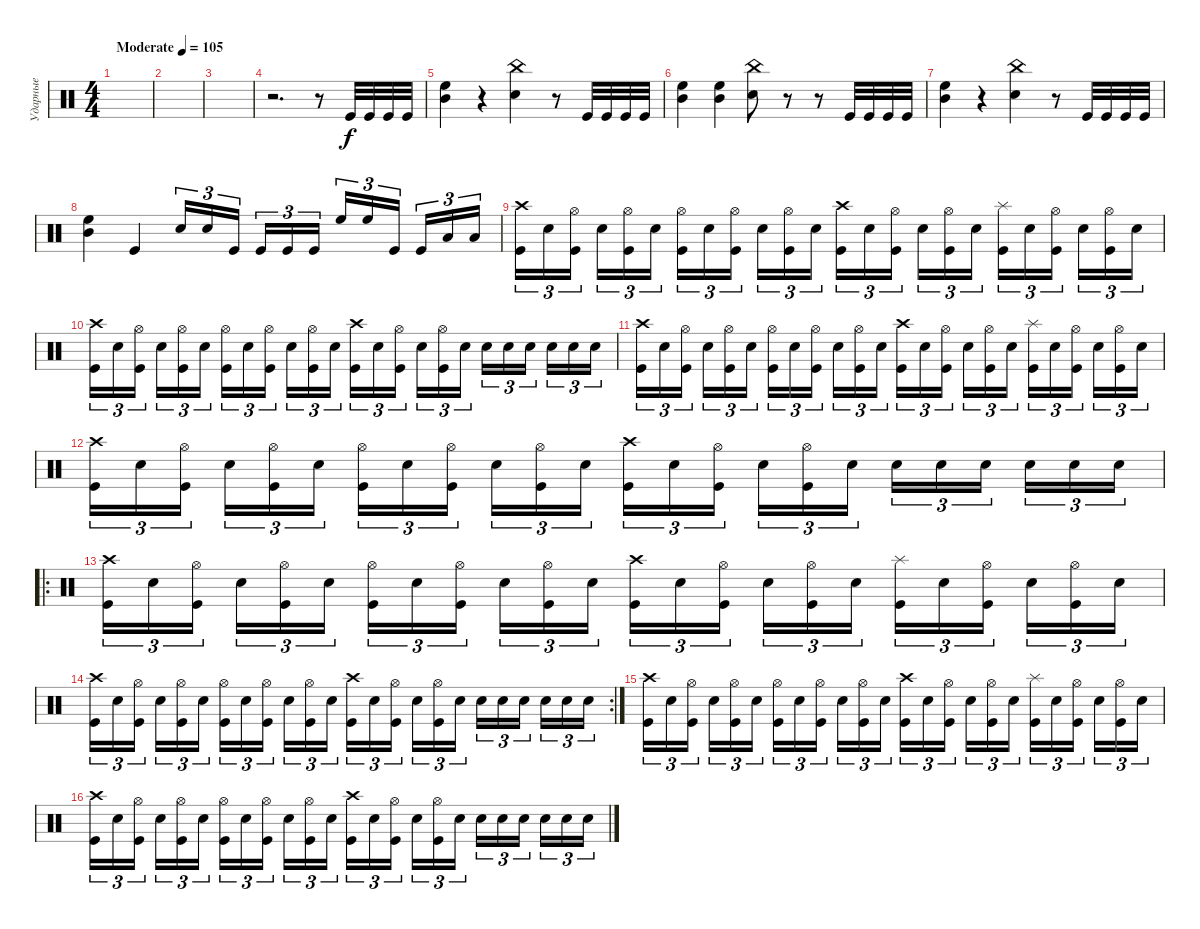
\track ("Ударные" "Ударные") {instrument percussion}
\staff {score}
\articulation defaults
\ts (4 4)
\tempo (105 "Moderate")
\clef neutral
\ks c
|
|
|
r.2{d} r.8 "Kick (hit)".32 "Kick (hit)".32 "Kick (hit)".32 "Kick (hit)".32 |
("Mid Tom (hit)" "High Floor Tom (hit)").4 r.4 ("Snare (hit) 2" "China (hit)").4 r.8 "Kick (hit)".32 "Kick (hit)".32 "Kick (hit)".32 "Kick (hit)".32 |
("Mid Tom (hit)" "High Floor Tom (hit)").4 ("High Floor Tom (hit)" "Mid Tom (hit)").4 ("China (hit)" "Snare (hit) 2").8 r.8 r.8 "Kick (hit)".32 "Kick (hit)".32 "Kick (hit)".32 "Kick (hit)".32 |
("Mid Tom (hit)" "High Floor Tom (hit)").4 r.4 ("Snare (hit) 2" "China (hit)").4 r.8 "Kick (hit)".32 "Kick (hit)".32 "Kick (hit)".32 "Kick (hit)".32 |
("Mid Tom (hit)" "High Floor Tom (hit)").4 "Kick (hit)".4 "Snare (hit) 2".16{tu (3 2)} "Snare (hit) 2".16{tu (3 2)} "Kick (hit)".16{tu (3 2) beam splitsecondary} "Kick (hit)".16{tu (3 2)} "Kick (hit)".16{tu (3 2)} "Kick (hit)".16{tu (3 2)} "High Floor Tom (hit)".16{tu (3 2)} "High Floor Tom (hit)".16{tu (3 2)} "Kick (hit)".16{tu (3 2) beam splitsecondary} "Kick (hit)".16{tu (3 2)} "Low Tom (hit)".16{tu (3 2)} "Low Tom (hit)".16{tu (3 2)} |
("Crash high (hit)" "Kick (hit)").16{tu (3 2)} "Snare (hit) 2".16{tu (3 2)} ("Hi-Hat (open)" "Kick (hit)").16{tu (3 2) beam splitsecondary} "Snare (hit) 2".16{tu (3 2)} ("Hi-Hat (open)" "Kick (hit)").16{tu (3 2)} "Snare (hit) 2".16{tu (3 2)} ("Hi-Hat (open)" "Kick (hit)").16{tu (3 2)} "Snare (hit) 2".16{tu (3 2)} ("Hi-Hat (open)" "Kick (hit)").16{tu (3 2) beam splitsecondary} "Snare (hit) 2".16{tu (3 2)} ("Hi-Hat (open)" "Kick (hit)").16{tu (3 2)} "Snare (hit) 2".16{tu (3 2)} ("Crash high (hit)" "Kick (hit)").16{tu (3 2)} "Snare (hit) 2".16{tu (3 2)} ("Hi-Hat (open)" "Kick (hit)").16{tu (3 2) beam splitsecondary} "Snare (hit) 2".16{tu (3 2)} ("Hi-Hat (open)" "Kick (hit)").16{tu (3 2)} "Snare (hit) 2".16{tu (3 2)} ("Splash (hit)" "Kick (hit)").16{tu (3 2)} "Snare (hit) 2".16{tu (3 2)} ("Hi-Hat (open)" "Kick (hit)").16{tu (3 2) beam splitsecondary} "Snare (hit) 2".16{tu (3 2)} ("Hi-Hat (open)" "Kick (hit)").16{tu (3 2)} "Snare (hit) 2".16{tu (3 2)} |
("Crash high (hit)" "Kick (hit)").16{tu (3 2)} "Snare (hit) 2".16{tu (3 2)} ("Hi-Hat (open)" "Kick (hit)").16{tu (3 2) beam splitsecondary} "Snare (hit) 2".16{tu (3 2)} ("Hi-Hat (open)" "Kick (hit)").16{tu (3 2)} "Snare (hit) 2".16{tu (3 2)} ("Hi-Hat (open)" "Kick (hit)").16{tu (3 2)} "Snare (hit) 2".16{tu (3 2)} ("Hi-Hat (open)" "Kick (hit)").16{tu (3 2) beam splitsecondary} "Snare (hit) 2".16{tu (3 2)} ("Hi-Hat (open)" "Kick (hit)").16{tu (3 2)} "Snare (hit) 2".16{tu (3 2)} ("Crash high (hit)" "Kick (hit)").16{tu (3 2)} "Snare (hit) 2".16{tu (3 2)} ("Hi-Hat (open)" "Kick (hit)").16{tu (3 2) beam splitsecondary} "Snare (hit) 2".16{tu (3 2)} ("Hi-Hat (open)" "Kick (hit)").16{tu (3 2)} "Snare (hit) 2".16{tu (3 2)} "Snare (hit) 2".16{tu (3 2)} "Snare (hit) 2".16{tu (3 2)} "Snare (hit) 2".16{tu (3 2) beam splitsecondary} "Snare (hit) 2".16{tu (3 2)} "Snare (hit) 2".16{tu (3 2)} "Snare (hit) 2".16{tu (3 2)} |
("Crash high (hit)" "Kick (hit)").16{tu (3 2)} "Snare (hit) 2".16{tu (3 2)} ("Hi-Hat (open)" "Kick (hit)").16{tu (3 2) beam splitsecondary} "Snare (hit) 2".16{tu (3 2)} ("Hi-Hat (open)" "Kick (hit)").16{tu (3 2)} "Snare (hit) 2".16{tu (3 2)} ("Hi-Hat (open)" "Kick (hit)").16{tu (3 2)} "Snare (hit) 2".16{tu (3 2)} ("Hi-Hat (open)" "Kick (hit)").16{tu (3 2) beam splitsecondary} "Snare (hit) 2".16{tu (3 2)} ("Hi-Hat (open)" "Kick (hit)").16{tu (3 2)} "Snare (hit) 2".16{tu (3 2)} ("Crash high (hit)" "Kick (hit)").16{tu (3 2)} "Snare (hit) 2".16{tu (3 2)} ("Hi-Hat (open)" "Kick (hit)").16{tu (3 2) beam splitsecondary} "Snare (hit) 2".16{tu (3 2)} ("Hi-Hat (open)" "Kick (hit)").16{tu (3 2)} "Snare (hit) 2".16{tu (3 2)} ("Splash (hit)" "Kick (hit)").16{tu (3 2)} "Snare (hit) 2".16{tu (3 2)} ("Hi-Hat (open)" "Kick (hit)").16{tu (3 2) beam splitsecondary} "Snare (hit) 2".16{tu (3 2)} ("Hi-Hat (open)" "Kick (hit)").16{tu (3 2)} "Snare (hit) 2".16{tu (3 2)} |
("Crash high (hit)" "Kick (hit)").16{tu (3 2)} "Snare (hit) 2".16{tu (3 2)} ("Hi-Hat (open)" "Kick (hit)").16{tu (3 2) beam splitsecondary} "Snare (hit) 2".16{tu (3 2)} ("Hi-Hat (open)" "Kick (hit)").16{tu (3 2)} "Snare (hit) 2".16{tu (3 2)} ("Hi-Hat (open)" "Kick (hit)").16{tu (3 2)} "Snare (hit) 2".16{tu (3 2)} ("Hi-Hat (open)" "Kick (hit)").16{tu (3 2) beam splitsecondary} "Snare (hit) 2".16{tu (3 2)} ("Hi-Hat (open)" "Kick (hit)").16{tu (3 2)} "Snare (hit) 2".16{tu (3 2)} ("Crash high (hit)" "Kick (hit)").16{tu (3 2)} "Snare (hit) 2".16{tu (3 2)} ("Hi-Hat (open)" "Kick (hit)").16{tu (3 2) beam splitsecondary} "Snare (hit) 2".16{tu (3 2)} ("Hi-Hat (open)" "Kick (hit)").16{tu (3 2)} "Snare (hit) 2".16{tu (3 2)} "Snare (hit) 2".16{tu (3 2)} "Snare (hit) 2".16{tu (3 2)} "Snare (hit) 2".16{tu (3 2) beam splitsecondary} "Snare (hit) 2".16{tu (3 2)} "Snare (hit) 2".16{tu (3 2)} "Snare (hit) 2".16{tu (3 2)} |
\ro
("Crash high (hit)" "Kick (hit)").16{tu (3 2)} "Snare (hit) 2".16{tu (3 2)} ("Hi-Hat (open)" "Kick (hit)").16{tu (3 2) beam splitsecondary} "Snare (hit) 2".16{tu (3 2)} ("Hi-Hat (open)" "Kick (hit)").16{tu (3 2)} "Snare (hit) 2".16{tu (3 2)} ("Hi-Hat (open)" "Kick (hit)").16{tu (3 2)} "Snare (hit) 2".16{tu (3 2)} ("Hi-Hat (open)" "Kick (hit)").16{tu (3 2) beam splitsecondary} "Snare (hit) 2".16{tu (3 2)} ("Hi-Hat (open)" "Kick (hit)").16{tu (3 2)} "Snare (hit) 2".16{tu (3 2)} ("Crash high (hit)" "Kick (hit)").16{tu (3 2)} "Snare (hit) 2".16{tu (3 2)} ("Hi-Hat (open)" "Kick (hit)").16{tu (3 2) beam splitsecondary} "Snare (hit) 2".16{tu (3 2)} ("Hi-Hat (open)" "Kick (hit)").16{tu (3 2)} "Snare (hit) 2".16{tu (3 2)} ("Splash (hit)" "Kick (hit)").16{tu (3 2)} "Snare (hit) 2".16{tu (3 2)} ("Hi-Hat (open)" "Kick (hit)").16{tu (3 2) beam splitsecondary} "Snare (hit) 2".16{tu (3 2)} ("Hi-Hat (open)" "Kick (hit)").16{tu (3 2)} "Snare (hit) 2".16{tu (3 2)} |
\rc 2
("Crash high (hit)" "Kick (hit)").16{tu (3 2)} "Snare (hit) 2".16{tu (3 2)} ("Hi-Hat (open)" "Kick (hit)").16{tu (3 2) beam splitsecondary} "Snare (hit) 2".16{tu (3 2)} ("Hi-Hat (open)" "Kick (hit)").16{tu (3 2)} "Snare (hit) 2".16{tu (3 2)} ("Hi-Hat (open)" "Kick (hit)").16{tu (3 2)} "Snare (hit) 2".16{tu (3 2)} ("Hi-Hat (open)" "Kick (hit)").16{tu (3 2) beam splitsecondary} "Snare (hit) 2".16{tu (3 2)} ("Hi-Hat (open)" "Kick (hit)").16{tu (3 2)} "Snare (hit) 2".16{tu (3 2)} ("Crash high (hit)" "Kick (hit)").16{tu (3 2)} "Snare (hit) 2".16{tu (3 2)} ("Hi-Hat (open)" "Kick (hit)").16{tu (3 2) beam splitsecondary} "Snare (hit) 2".16{tu (3 2)} ("Hi-Hat (open)" "Kick (hit)").16{tu (3 2)} "Snare (hit) 2".16{tu (3 2)} "Snare (hit) 2".16{tu (3 2)} "Snare (hit) 2".16{tu (3 2)} "Snare (hit) 2".16{tu (3 2) beam splitsecondary} "Snare (hit) 2".16{tu (3 2)} "Snare (hit) 2".16{tu (3 2)} "Snare (hit) 2".16{tu (3 2)} |
("Crash high (hit)" "Kick (hit)").16{tu (3 2)} "Snare (hit) 2".16{tu (3 2)} ("Hi-Hat (open)" "Kick (hit)").16{tu (3 2) beam splitsecondary} "Snare (hit) 2".16{tu (3 2)} ("Hi-Hat (open)" "Kick (hit)").16{tu (3 2)} "Snare (hit) 2".16{tu (3 2)} ("Hi-Hat (open)" "Kick (hit)").16{tu (3 2)} "Snare (hit) 2".16{tu (3 2)} ("Hi-Hat (open)" "Kick (hit)").16{tu (3 2) beam splitsecondary} "Snare (hit) 2".16{tu (3 2)} ("Hi-Hat (open)" "Kick (hit)").16{tu (3 2)} "Snare (hit) 2".16{tu (3 2)} ("Crash high (hit)" "Kick (hit)").16{tu (3 2)} "Snare (hit) 2".16{tu (3 2)} ("Hi-Hat (open)" "Kick (hit)").16{tu (3 2) beam splitsecondary} "Snare (hit) 2".16{tu (3 2)} ("Hi-Hat (open)" "Kick (hit)").16{tu (3 2)} "Snare (hit) 2".16{tu (3 2)} ("Splash (hit)" "Kick (hit)").16{tu (3 2)} "Snare (hit) 2".16{tu (3 2)} ("Hi-Hat (open)" "Kick (hit)").16{tu (3 2) beam splitsecondary} "Snare (hit) 2".16{tu (3 2)} ("Hi-Hat (open)" "Kick (hit)").16{tu (3 2)} "Snare (hit) 2".16{tu (3 2)} |
("Crash high (hit)" "Kick (hit)").16{tu (3 2)} "Snare (hit) 2".16{tu (3 2)} ("Hi-Hat (open)" "Kick (hit)").16{tu (3 2) beam splitsecondary} "Snare (hit) 2".16{tu (3 2)} ("Hi-Hat (open)" "Kick (hit)").16{tu (3 2)} "Snare (hit) 2".16{tu (3 2)} ("Hi-Hat (open)" "Kick (hit)").16{tu (3 2)} "Snare (hit) 2".16{tu (3 2)} ("Hi-Hat (open)" "Kick (hit)").16{tu (3 2) beam splitsecondary} "Snare (hit) 2".16{tu (3 2)} ("Hi-Hat (open)" "Kick (hit)").16{tu (3 2)} "Snare (hit) 2".16{tu (3 2)} ("Crash high (hit)" "Kick (hit)").16{tu (3 2)} "Snare (hit) 2".16{tu (3 2)} ("Hi-Hat (open)" "Kick (hit)").16{tu (3 2) beam splitsecondary} "Snare (hit) 2".16{tu (3 2)} ("Hi-Hat (open)" "Kick (hit)").16{tu (3 2)} "Snare (hit) 2".16{tu (3 2)} "Snare (hit) 2".16{tu (3 2)} "Snare (hit) 2".16{tu (3 2)} "Snare (hit) 2".16{tu (3 2) beam splitsecondary} "Snare (hit) 2".16{tu (3 2)} "Snare (hit) 2".16{tu (3 2)} "Snare (hit) 2".16{tu (3 2)}
